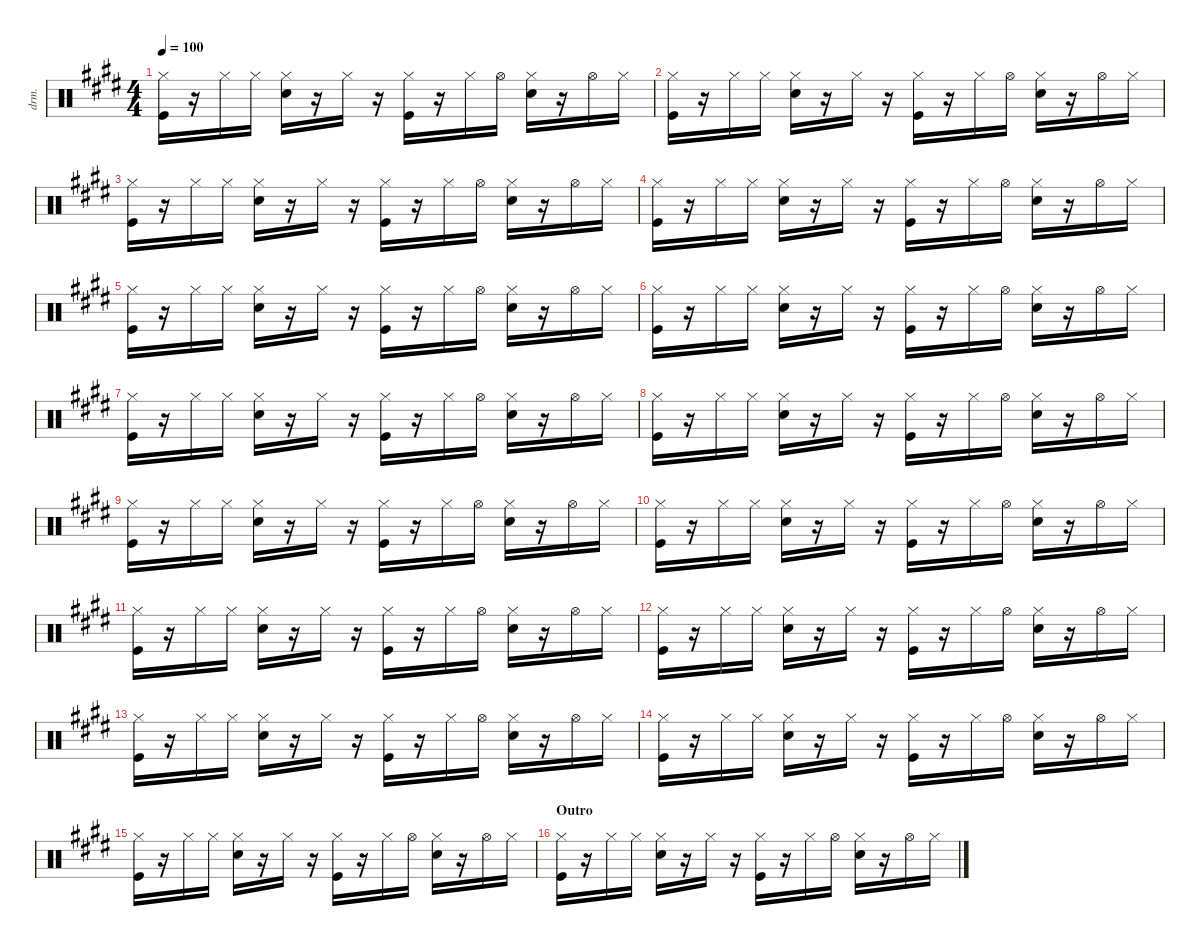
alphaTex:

\defaultSystemsLayout 4
\hideDynamics
\bracketExtendMode nobrackets
\otherSystemsTrackNameOrientation horizontal
\track ("Drums" "drm.") {instrument percussion}
\staff {score}
\articulation defaults
\ts (4 4)
\tempo 100
\clef neutral
\ks e
("Hi-Hat (closed)"{acc forcenatural} "Kick (hit)"{acc forcenatural}).16{dy f beam Down} r.16{beam Down} "Hi-Hat (closed)"{acc forcenatural}.16{beam Down} "Hi-Hat (closed)"{acc forcenatural}.16{beam Down} ("Hi-Hat (closed)"{acc forcenatural} "Snare (hit) 2"{acc forcenatural}).16{beam Down} r.16{beam Down} "Hi-Hat (closed)"{acc forcenatural}.16{beam Down} r.16{beam Down} ("Hi-Hat (closed)"{acc forcenatural} "Kick (hit)"{acc forcenatural}).16{beam Down} r.16{beam Down} "Hi-Hat (closed)"{acc forcenatural}.16{beam Down} "Hi-Hat (open)"{acc forcenatural}.16{beam Down} ("Hi-Hat (closed)"{acc forcenatural} "Snare (hit) 2"{acc forcenatural}).16{beam Down} r.16{beam Down} "Hi-Hat (open)"{acc forcenatural}.16{beam Down} "Hi-Hat (closed)"{acc forcenatural}.16{beam Down} |
("Hi-Hat (closed)"{acc forcenatural} "Kick (hit)"{acc forcenatural}).16{beam Down} r.16{beam Down} "Hi-Hat (closed)"{acc forcenatural}.16{beam Down} "Hi-Hat (closed)"{acc forcenatural}.16{beam Down} ("Hi-Hat (closed)"{acc forcenatural} "Snare (hit) 2"{acc forcenatural}).16{beam Down} r.16{beam Down} "Hi-Hat (closed)"{acc forcenatural}.16{beam Down} r.16{beam Down} ("Hi-Hat (closed)"{acc forcenatural} "Kick (hit)"{acc forcenatural}).16{beam Down} r.16{beam Down} "Hi-Hat (closed)"{acc forcenatural}.16{beam Down} "Hi-Hat (open)"{acc forcenatural}.16{beam Down} ("Hi-Hat (closed)"{acc forcenatural} "Snare (hit) 2"{acc forcenatural}).16{beam Down} r.16{beam Down} "Hi-Hat (open)"{acc forcenatural}.16{beam Down} "Hi-Hat (closed)"{acc forcenatural}.16{beam Down} |
("Hi-Hat (closed)"{acc forcenatural} "Kick (hit)"{acc forcenatural}).16{beam Down} r.16{beam Down} "Hi-Hat (closed)"{acc forcenatural}.16{beam Down} "Hi-Hat (closed)"{acc forcenatural}.16{beam Down} ("Hi-Hat (closed)"{acc forcenatural} "Snare (hit) 2"{acc forcenatural}).16{beam Down} r.16{beam Down} "Hi-Hat (closed)"{acc forcenatural}.16{beam Down} r.16{beam Down} ("Hi-Hat (closed)"{acc forcenatural} "Kick (hit)"{acc forcenatural}).16{beam Down} r.16{beam Down} "Hi-Hat (closed)"{acc forcenatural}.16{beam Down} "Hi-Hat (open)"{acc forcenatural}.16{beam Down} ("Hi-Hat (closed)"{acc forcenatural} "Snare (hit) 2"{acc forcenatural}).16{beam Down} r.16{beam Down} "Hi-Hat (open)"{acc forcenatural}.16{beam Down} "Hi-Hat (closed)"{acc forcenatural}.16{beam Down} |
("Hi-Hat (closed)"{acc forcenatural} "Kick (hit)"{acc forcenatural}).16{beam Down} r.16{beam Down} "Hi-Hat (closed)"{acc forcenatural}.16{beam Down} "Hi-Hat (closed)"{acc forcenatural}.16{beam Down} ("Hi-Hat (closed)"{acc forcenatural} "Snare (hit) 2"{acc forcenatural}).16{beam Down} r.16{beam Down} "Hi-Hat (closed)"{acc forcenatural}.16{beam Down} r.16{beam Down} ("Hi-Hat (closed)"{acc forcenatural} "Kick (hit)"{acc forcenatural}).16{beam Down} r.16{beam Down} "Hi-Hat (closed)"{acc forcenatural}.16{beam Down} "Hi-Hat (open)"{acc forcenatural}.16{beam Down} ("Hi-Hat (closed)"{acc forcenatural} "Snare (hit) 2"{acc forcenatural}).16{beam Down} r.16{beam Down} "Hi-Hat (open)"{acc forcenatural}.16{beam Down} "Hi-Hat (closed)"{acc forcenatural}.16{beam Down} |
("Hi-Hat (closed)"{acc forcenatural} "Kick (hit)"{acc forcenatural}).16{beam Down} r.16{beam Down} "Hi-Hat (closed)"{acc forcenatural}.16{beam Down} "Hi-Hat (closed)"{acc forcenatural}.16{beam Down} ("Hi-Hat (closed)"{acc forcenatural} "Snare (hit) 2"{acc forcenatural}).16{beam Down} r.16{beam Down} "Hi-Hat (closed)"{acc forcenatural}.16{beam Down} r.16{beam Down} ("Hi-Hat (closed)"{acc forcenatural} "Kick (hit)"{acc forcenatural}).16{beam Down} r.16{beam Down} "Hi-Hat (closed)"{acc forcenatural}.16{beam Down} "Hi-Hat (open)"{acc forcenatural}.16{beam Down} ("Hi-Hat (closed)"{acc forcenatural} "Snare (hit) 2"{acc forcenatural}).16{beam Down} r.16{beam Down} "Hi-Hat (open)"{acc forcenatural}.16{beam Down} "Hi-Hat (closed)"{acc forcenatural}.16{beam Down} |
("Hi-Hat (closed)"{acc forcenatural} "Kick (hit)"{acc forcenatural}).16{beam Down} r.16{beam Down} "Hi-Hat (closed)"{acc forcenatural}.16{beam Down} "Hi-Hat (closed)"{acc forcenatural}.16{beam Down} ("Hi-Hat (closed)"{acc forcenatural} "Snare (hit) 2"{acc forcenatural}).16{beam Down} r.16{beam Down} "Hi-Hat (closed)"{acc forcenatural}.16{beam Down} r.16{beam Down} ("Hi-Hat (closed)"{acc forcenatural} "Kick (hit)"{acc forcenatural}).16{beam Down} r.16{beam Down} "Hi-Hat (closed)"{acc forcenatural}.16{beam Down} "Hi-Hat (open)"{acc forcenatural}.16{beam Down} ("Hi-Hat (closed)"{acc forcenatural} "Snare (hit) 2"{acc forcenatural}).16{beam Down} r.16{beam Down} "Hi-Hat (open)"{acc forcenatural}.16{beam Down} "Hi-Hat (closed)"{acc forcenatural}.16{beam Down} |
("Hi-Hat (closed)"{acc forcenatural} "Kick (hit)"{acc forcenatural}).16{beam Down} r.16{beam Down} "Hi-Hat (closed)"{acc forcenatural}.16{beam Down} "Hi-Hat (closed)"{acc forcenatural}.16{beam Down} ("Hi-Hat (closed)"{acc forcenatural} "Snare (hit) 2"{acc forcenatural}).16{beam Down} r.16{beam Down} "Hi-Hat (closed)"{acc forcenatural}.16{beam Down} r.16{beam Down} ("Hi-Hat (closed)"{acc forcenatural} "Kick (hit)"{acc forcenatural}).16{beam Down} r.16{beam Down} "Hi-Hat (closed)"{acc forcenatural}.16{beam Down} "Hi-Hat (open)"{acc forcenatural}.16{beam Down} ("Hi-Hat (closed)"{acc forcenatural} "Snare (hit) 2"{acc forcenatural}).16{beam Down} r.16{beam Down} "Hi-Hat (open)"{acc forcenatural}.16{beam Down} "Hi-Hat (closed)"{acc forcenatural}.16{beam Down} |
("Hi-Hat (closed)"{acc forcenatural} "Kick (hit)"{acc forcenatural}).16{beam Down} r.16{beam Down} "Hi-Hat (closed)"{acc forcenatural}.16{beam Down} "Hi-Hat (closed)"{acc forcenatural}.16{beam Down} ("Hi-Hat (closed)"{acc forcenatural} "Snare (hit) 2"{acc forcenatural}).16{beam Down} r.16{beam Down} "Hi-Hat (closed)"{acc forcenatural}.16{beam Down} r.16{beam Down} ("Hi-Hat (closed)"{acc forcenatural} "Kick (hit)"{acc forcenatural}).16{beam Down} r.16{beam Down} "Hi-Hat (closed)"{acc forcenatural}.16{beam Down} "Hi-Hat (open)"{acc forcenatural}.16{beam Down} ("Hi-Hat (closed)"{acc forcenatural} "Snare (hit) 2"{acc forcenatural}).16{beam Down} r.16{beam Down} "Hi-Hat (open)"{acc forcenatural}.16{beam Down} "Hi-Hat (closed)"{acc forcenatural}.16{beam Down} |
("Hi-Hat (closed)"{acc forcenatural} "Kick (hit)"{acc forcenatural}).16{beam Down} r.16{beam Down} "Hi-Hat (closed)"{acc forcenatural}.16{beam Down} "Hi-Hat (closed)"{acc forcenatural}.16{beam Down} ("Hi-Hat (closed)"{acc forcenatural} "Snare (hit) 2"{acc forcenatural}).16{beam Down} r.16{beam Down} "Hi-Hat (closed)"{acc forcenatural}.16{beam Down} r.16{beam Down} ("Hi-Hat (closed)"{acc forcenatural} "Kick (hit)"{acc forcenatural}).16{beam Down} r.16{beam Down} "Hi-Hat (closed)"{acc forcenatural}.16{beam Down} "Hi-Hat (open)"{acc forcenatural}.16{beam Down} ("Hi-Hat (closed)"{acc forcenatural} "Snare (hit) 2"{acc forcenatural}).16{beam Down} r.16{beam Down} "Hi-Hat (open)"{acc forcenatural}.16{beam Down} "Hi-Hat (closed)"{acc forcenatural}.16{beam Down} |
("Hi-Hat (closed)"{acc forcenatural} "Kick (hit)"{acc forcenatural}).16{beam Down} r.16{beam Down} "Hi-Hat (closed)"{acc forcenatural}.16{beam Down} "Hi-Hat (closed)"{acc forcenatural}.16{beam Down} ("Hi-Hat (closed)"{acc forcenatural} "Snare (hit) 2"{acc forcenatural}).16{beam Down} r.16{beam Down} "Hi-Hat (closed)"{acc forcenatural}.16{beam Down} r.16{beam Down} ("Hi-Hat (closed)"{acc forcenatural} "Kick (hit)"{acc forcenatural}).16{beam Down} r.16{beam Down} "Hi-Hat (closed)"{acc forcenatural}.16{beam Down} "Hi-Hat (open)"{acc forcenatural}.16{beam Down} ("Hi-Hat (closed)"{acc forcenatural} "Snare (hit) 2"{acc forcenatural}).16{beam Down} r.16{beam Down} "Hi-Hat (open)"{acc forcenatural}.16{beam Down} "Hi-Hat (closed)"{acc forcenatural}.16{beam Down} |
("Hi-Hat (closed)"{acc forcenatural} "Kick (hit)"{acc forcenatural}).16{beam Down} r.16{beam Down} "Hi-Hat (closed)"{acc forcenatural}.16{beam Down} "Hi-Hat (closed)"{acc forcenatural}.16{beam Down} ("Hi-Hat (closed)"{acc forcenatural} "Snare (hit) 2"{acc forcenatural}).16{beam Down} r.16{beam Down} "Hi-Hat (closed)"{acc forcenatural}.16{beam Down} r.16{beam Down} ("Hi-Hat (closed)"{acc forcenatural} "Kick (hit)"{acc forcenatural}).16{beam Down} r.16{beam Down} "Hi-Hat (closed)"{acc forcenatural}.16{beam Down} "Hi-Hat (open)"{acc forcenatural}.16{beam Down} ("Hi-Hat (closed)"{acc forcenatural} "Snare (hit) 2"{acc forcenatural}).16{beam Down} r.16{beam Down} "Hi-Hat (open)"{acc forcenatural}.16{beam Down} "Hi-Hat (closed)"{acc forcenatural}.16{beam Down} |
("Hi-Hat (closed)"{acc forcenatural} "Kick (hit)"{acc forcenatural}).16{beam Down} r.16{beam Down} "Hi-Hat (closed)"{acc forcenatural}.16{beam Down} "Hi-Hat (closed)"{acc forcenatural}.16{beam Down} ("Hi-Hat (closed)"{acc forcenatural} "Snare (hit) 2"{acc forcenatural}).16{beam Down} r.16{beam Down} "Hi-Hat (closed)"{acc forcenatural}.16{beam Down} r.16{beam Down} ("Hi-Hat (closed)"{acc forcenatural} "Kick (hit)"{acc forcenatural}).16{beam Down} r.16{beam Down} "Hi-Hat (closed)"{acc forcenatural}.16{beam Down} "Hi-Hat (open)"{acc forcenatural}.16{beam Down} ("Hi-Hat (closed)"{acc forcenatural} "Snare (hit) 2"{acc forcenatural}).16{beam Down} r.16{beam Down} "Hi-Hat (open)"{acc forcenatural}.16{beam Down} "Hi-Hat (closed)"{acc forcenatural}.16{beam Down} |
("Hi-Hat (closed)"{acc forcenatural} "Kick (hit)"{acc forcenatural}).16{beam Down} r.16{beam Down} "Hi-Hat (closed)"{acc forcenatural}.16{beam Down} "Hi-Hat (closed)"{acc forcenatural}.16{beam Down} ("Hi-Hat (closed)"{acc forcenatural} "Snare (hit) 2"{acc forcenatural}).16{beam Down} r.16{beam Down} "Hi-Hat (closed)"{acc forcenatural}.16{beam Down} r.16{beam Down} ("Hi-Hat (closed)"{acc forcenatural} "Kick (hit)"{acc forcenatural}).16{beam Down} r.16{beam Down} "Hi-Hat (closed)"{acc forcenatural}.16{beam Down} "Hi-Hat (open)"{acc forcenatural}.16{beam Down} ("Hi-Hat (closed)"{acc forcenatural} "Snare (hit) 2"{acc forcenatural}).16{beam Down} r.16{beam Down} "Hi-Hat (open)"{acc forcenatural}.16{beam Down} "Hi-Hat (closed)"{acc forcenatural}.16{beam Down} |
("Hi-Hat (closed)"{acc forcenatural} "Kick (hit)"{acc forcenatural}).16{beam Down} r.16{beam Down} "Hi-Hat (closed)"{acc forcenatural}.16{beam Down} "Hi-Hat (closed)"{acc forcenatural}.16{beam Down} ("Hi-Hat (closed)"{acc forcenatural} "Snare (hit) 2"{acc forcenatural}).16{beam Down} r.16{beam Down} "Hi-Hat (closed)"{acc forcenatural}.16{beam Down} r.16{beam Down} ("Hi-Hat (closed)"{acc forcenatural} "Kick (hit)"{acc forcenatural}).16{beam Down} r.16{beam Down} "Hi-Hat (closed)"{acc forcenatural}.16{beam Down} "Hi-Hat (open)"{acc forcenatural}.16{beam Down} ("Hi-Hat (closed)"{acc forcenatural} "Snare (hit) 2"{acc forcenatural}).16{beam Down} r.16{beam Down} "Hi-Hat (open)"{acc forcenatural}.16{beam Down} "Hi-Hat (closed)"{acc forcenatural}.16{beam Down} |
("Hi-Hat (closed)"{acc forcenatural} "Kick (hit)"{acc forcenatural}).16{beam Down} r.16{beam Down} "Hi-Hat (closed)"{acc forcenatural}.16{beam Down} "Hi-Hat (closed)"{acc forcenatural}.16{beam Down} ("Hi-Hat (closed)"{acc forcenatural} "Snare (hit) 2"{acc forcenatural}).16{beam Down} r.16{beam Down} "Hi-Hat (closed)"{acc forcenatural}.16{beam Down} r.16{beam Down} ("Hi-Hat (closed)"{acc forcenatural} "Kick (hit)"{acc forcenatural}).16{beam Down} r.16{beam Down} "Hi-Hat (closed)"{acc forcenatural}.16{beam Down} "Hi-Hat (open)"{acc forcenatural}.16{beam Down} ("Hi-Hat (closed)"{acc forcenatural} "Snare (hit) 2"{acc forcenatural}).16{beam Down} r.16{beam Down} "Hi-Hat (open)"{acc forcenatural}.16{beam Down} "Hi-Hat (closed)"{acc forcenatural}.16{beam Down} |
\section ("" "Outro")
("Hi-Hat (closed)"{acc forcenatural} "Kick (hit)"{acc forcenatural}).16{beam Down} r.16{beam Down} "Hi-Hat (closed)"{acc forcenatural}.16{beam Down} "Hi-Hat (closed)"{acc forcenatural}.16{beam Down} ("Hi-Hat (closed)"{acc forcenatural} "Snare (hit) 2"{acc forcenatural}).16{beam Down} r.16{beam Down} "Hi-Hat (closed)"{acc forcenatural}.16{beam Down} r.16{beam Down} ("Hi-Hat (closed)"{acc forcenatural} "Kick (hit)"{acc forcenatural}).16{beam Down} r.16{beam Down} "Hi-Hat (closed)"{acc forcenatural}.16{beam Down} "Hi-Hat (open)"{acc forcenatural}.16{beam Down} ("Hi-Hat (closed)"{acc forcenatural} "Snare (hit) 2"{acc forcenatural}).16{beam Down} r.16{beam Down} "Hi-Hat (open)"{acc forcenatural}.16{beam Down} "Hi-Hat (closed)"{acc forcenatural}.16{beam Down}
